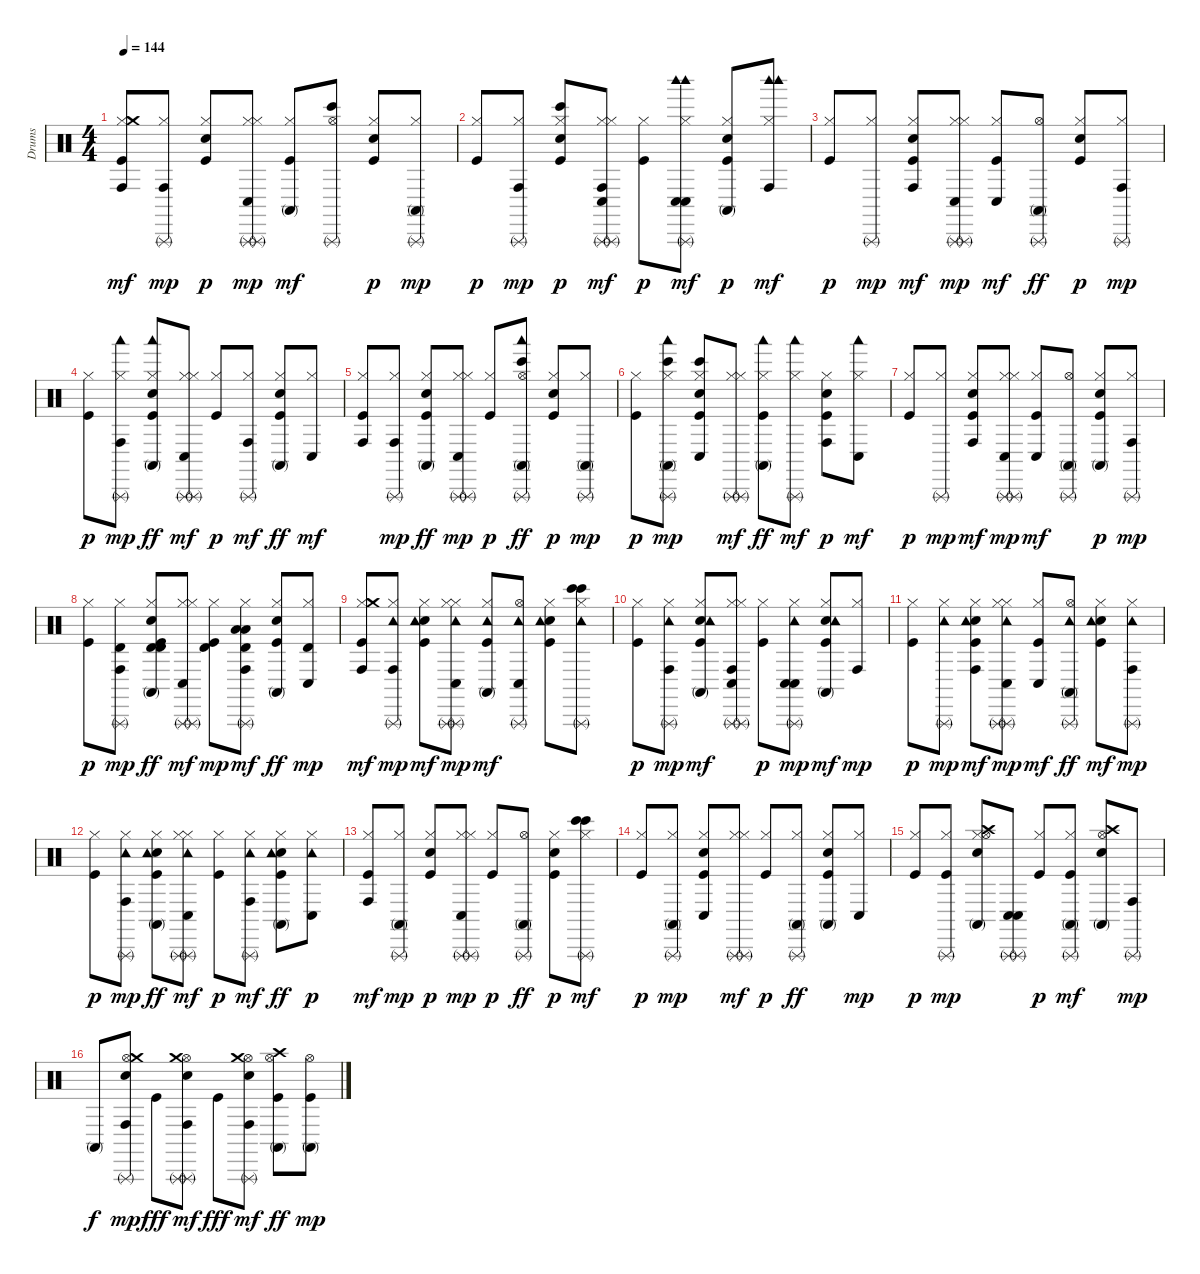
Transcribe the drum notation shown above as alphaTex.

\track ("Drums" "Drums") {instrument percussion}
\staff {score}
\articulation defaults
\ts (4 4)
\tempo 144
\clef neutral
\ks c
("Kick (hit)" "Hi-Hat (closed)" "Crash medium (hit)" "Conga high (hit)").8{dy mf} ("Hi-Hat (closed)" "Conga high (hit)" "Triangle (rnute)").8{dy mp} ("Kick (hit)" "Snare (hit) 2" "Hi-Hat (closed)").8{dy p} ("Hi-Hat (closed)" "Conga low (hit)" "Triangle (rnute)" "Hi-Hat (closed)" "Triangle (rnute)").8{dy mp} ("Kick (hit)" "Hi-Hat (closed)" "Conga high (mute)").8{dy mf} ("Hi-Hat (open)" "Bongo High (hit)" "Triangle (rnute)").8 ("Kick (hit)" "Snare (hit) 2" "Hi-Hat (closed)").8{dy p} ("Hi-Hat (closed)" "Conga high (mute)" "Triangle (rnute)").8{dy mp} |
("Kick (hit)" "Hi-Hat (closed)").8{dy p} ("Hi-Hat (closed)" "Conga high (hit)" "Triangle (rnute)").8{dy mp} ("Kick (hit)" "Snare (hit) 2" "Hi-Hat (closed)" "Bongo High (hit)").8{dy p} ("Hi-Hat (closed)" "Conga high (hit)" "Triangle (rnute)" "Hi-Hat (closed)" "Conga low (hit)" "Triangle (rnute)").8{dy mf} ("Kick (hit)" "Hi-Hat (closed)").8{dy p} ("Hi-Hat (closed)" "Conga low (hit)" "Woodblock high (hit)" "Triangle (rnute)" "Conga low (hit)" "Woodblock high (hit)").8{dy mf} ("Kick (hit)" "Snare (hit) 2" "Hi-Hat (closed)" "Conga high (mute)").8{dy p} ("Hi-Hat (closed)" "Conga high (hit)" "Woodblock high (hit)" "Woodblock high (hit)").8{dy mf} |
("Kick (hit)" "Hi-Hat (closed)").8{dy p} ("Hi-Hat (closed)" "Triangle (rnute)").8{dy mp} ("Kick (hit)" "Snare (hit) 2" "Hi-Hat (closed)" "Conga high (hit)").8{dy mf} ("Hi-Hat (closed)" "Conga low (hit)" "Triangle (rnute)" "Hi-Hat (closed)" "Triangle (rnute)").8{dy mp} ("Kick (hit)" "Hi-Hat (closed)" "Conga low (hit)").8{dy mf} ("Hi-Hat (open)" "Conga high (mute)" "Triangle (rnute)").8{dy ff} ("Kick (hit)" "Snare (hit) 2" "Hi-Hat (closed)").8{dy p} ("Hi-Hat (closed)" "Conga high (hit)" "Triangle (rnute)").8{dy mp} |
("Kick (hit)" "Hi-Hat (closed)").8{dy p} ("Hi-Hat (closed)" "Conga high (hit)" "Woodblock low (hit)" "Triangle (rnute)").8{dy mp} ("Kick (hit)" "Snare (hit) 2" "Hi-Hat (closed)" "Conga high (mute)" "Woodblock low (hit)").8{dy ff} ("Hi-Hat (closed)" "Conga low (hit)" "Triangle (rnute)" "Hi-Hat (closed)" "Triangle (rnute)").8{dy mf} ("Kick (hit)" "Hi-Hat (closed)").8{dy p} ("Hi-Hat (closed)" "Conga high (hit)" "Triangle (rnute)").8{dy mf} ("Kick (hit)" "Snare (hit) 2" "Hi-Hat (closed)" "Conga high (mute)").8{dy ff} ("Hi-Hat (closed)" "Conga low (hit)").8{dy mf} |
("Kick (hit)" "Hi-Hat (closed)" "Conga high (hit)").8 ("Hi-Hat (closed)" "Conga high (hit)" "Triangle (rnute)").8{dy mp} ("Kick (hit)" "Snare (hit) 2" "Hi-Hat (closed)" "Conga high (mute)").8{dy ff} ("Hi-Hat (closed)" "Conga low (hit)" "Triangle (rnute)" "Hi-Hat (closed)" "Triangle (rnute)").8{dy mp} ("Kick (hit)" "Hi-Hat (closed)").8{dy p} ("Hi-Hat (open)" "Bongo High (hit)" "Conga high (mute)" "Woodblock low (hit)" "Triangle (rnute)").8{dy ff} ("Kick (hit)" "Snare (hit) 2" "Hi-Hat (closed)").8{dy p} ("Hi-Hat (closed)" "Conga high (mute)" "Triangle (rnute)").8{dy mp} |
("Kick (hit)" "Hi-Hat (closed)").8{dy p} ("Hi-Hat (closed)" "Bongo High (hit)" "Conga high (mute)" "Woodblock low (hit)" "Triangle (rnute)").8{dy mp} ("Kick (hit)" "Snare (hit) 2" "Hi-Hat (closed)" "Bongo High (hit)" "Conga low (hit)").8 ("Hi-Hat (closed)" "Triangle (rnute)" "Hi-Hat (closed)" "Triangle (rnute)").8{dy mf} ("Kick (hit)" "Hi-Hat (closed)" "Conga high (mute)" "Woodblock low (hit)").8{dy ff} ("Hi-Hat (closed)" "Woodblock low (hit)" "Triangle (rnute)").8{dy mf} ("Kick (hit)" "Snare (hit) 2" "Hi-Hat (closed)" "Conga high (hit)").8{dy p} ("Hi-Hat (closed)" "Conga low (hit)" "Woodblock low (hit)").8{dy mf} |
("Kick (hit)" "Hi-Hat (closed)").8{dy p} ("Hi-Hat (closed)" "Triangle (rnute)").8{dy mp} ("Kick (hit)" "Snare (hit) 2" "Hi-Hat (closed)" "Conga high (hit)").8{dy mf} ("Hi-Hat (closed)" "Conga low (hit)" "Triangle (rnute)" "Hi-Hat (closed)" "Triangle (rnute)").8{dy mp} ("Kick (hit)" "Hi-Hat (closed)" "Conga low (hit)").8{dy mf} ("Hi-Hat (open)" "Conga high (mute)" "Triangle (rnute)").8 ("Kick (hit)" "Snare (hit) 2" "Hi-Hat (closed)" "Conga high (mute)").8{dy p} ("Hi-Hat (closed)" "Conga high (hit)" "Triangle (rnute)").8{dy mp} |
("Kick (hit)" "Hi-Hat (closed)").8{dy p} ("Hi-Hat (closed)" "Conga high (hit)" "Timbale high (hit)" "Triangle (rnute)").8{dy mp} ("Kick (hit)" "Snare (hit) 2" "Hi-Hat (closed)" "Conga high (mute)" "Timbale high (hit)" "Timbale high (hit)").8{dy ff} ("Hi-Hat (closed)" "Conga low (hit)" "Triangle (rnute)" "Hi-Hat (closed)" "Triangle (rnute)").8{dy mf} ("Kick (hit)" "Hi-Hat (closed)" "Timbale high (hit)").8{dy mp} ("Hi-Hat (closed)" "Low Tom (hit)" "Conga high (hit)" "Timbale high (hit)" "Triangle (rnute)" "Low Tom (hit)").8{dy mf} ("Kick (hit)" "Snare (hit) 2" "Hi-Hat (closed)" "Conga high (mute)").8{dy ff} ("Hi-Hat (closed)" "Conga low (hit)" "Timbale high (hit)").8{dy mp} |
("Kick (hit)" "Hi-Hat (closed)" "Crash medium (hit)" "Conga high (hit)").8{dy mf} ("Hi-Hat (closed)" "Tambourine (hit)" "Conga high (hit)" "Triangle (rnute)").8{dy mp} ("Kick (hit)" "Snare (hit) 2" "Hi-Hat (closed)" "Tambourine (hit)").8{dy mf} ("Hi-Hat (closed)" "Tambourine (hit)" "Conga low (hit)" "Triangle (rnute)" "Hi-Hat (closed)" "Triangle (rnute)").8{dy mp} ("Kick (hit)" "Hi-Hat (closed)" "Tambourine (hit)" "Conga high (mute)").8{dy mf} ("Hi-Hat (open)" "Tambourine (hit)" "Conga low (hit)" "Triangle (rnute)").8 ("Kick (hit)" "Snare (hit) 2" "Hi-Hat (closed)" "Tambourine (hit)").8 ("Hi-Hat (closed)" "Tambourine (hit)" "Bongo High (hit)" "Triangle (rnute)" "Bongo High (hit)").8 |
("Kick (hit)" "Hi-Hat (closed)").8{dy p} ("Hi-Hat (closed)" "Tambourine (hit)" "Conga high (hit)" "Triangle (rnute)").8{dy mp} ("Kick (hit)" "Snare (hit) 2" "Hi-Hat (closed)" "Tambourine (hit)" "Conga high (mute)").8{dy mf} ("Hi-Hat (closed)" "Conga high (hit)" "Triangle (rnute)" "Hi-Hat (closed)" "Conga low (hit)" "Triangle (rnute)").8 ("Kick (hit)" "Hi-Hat (closed)").8{dy p} ("Hi-Hat (closed)" "Tambourine (hit)" "Conga low (hit)" "Triangle (rnute)" "Conga low (hit)").8{dy mp} ("Kick (hit)" "Snare (hit) 2" "Hi-Hat (closed)" "Tambourine (hit)" "Conga high (mute)").8{dy mf} ("Hi-Hat (closed)" "Conga high (hit)").8{dy mp} |
("Kick (hit)" "Hi-Hat (closed)").8{dy p} ("Hi-Hat (closed)" "Tambourine (hit)" "Triangle (rnute)").8{dy mp} ("Kick (hit)" "Snare (hit) 2" "Hi-Hat (closed)" "Tambourine (hit)" "Conga high (hit)").8{dy mf} ("Hi-Hat (closed)" "Tambourine (hit)" "Conga low (hit)" "Triangle (rnute)" "Hi-Hat (closed)" "Triangle (rnute)").8{dy mp} ("Kick (hit)" "Hi-Hat (closed)" "Conga low (hit)").8{dy mf} ("Hi-Hat (open)" "Tambourine (hit)" "Conga high (mute)" "Triangle (rnute)").8{dy ff} ("Kick (hit)" "Snare (hit) 2" "Hi-Hat (closed)" "Tambourine (hit)").8{dy mf} ("Hi-Hat (closed)" "Tambourine (hit)" "Conga high (hit)" "Triangle (rnute)").8{dy mp} |
("Kick (hit)" "Hi-Hat (closed)").8{dy p} ("Hi-Hat (closed)" "Tambourine (hit)" "Conga high (hit)" "Triangle (rnute)").8{dy mp} ("Kick (hit)" "Snare (hit) 2" "Hi-Hat (closed)" "Tambourine (hit)" "Conga high (mute)").8{dy ff} ("Hi-Hat (closed)" "Tambourine (hit)" "Conga low (hit)" "Triangle (rnute)" "Hi-Hat (closed)" "Triangle (rnute)").8{dy mf} ("Kick (hit)" "Hi-Hat (closed)").8{dy p} ("Hi-Hat (closed)" "Tambourine (hit)" "Conga high (hit)" "Triangle (rnute)").8{dy mf} ("Kick (hit)" "Snare (hit) 2" "Hi-Hat (closed)" "Tambourine (hit)" "Conga high (mute)").8{dy ff} ("Hi-Hat (closed)" "Tambourine (hit)" "Conga low (hit)").8{dy p} |
("Kick (hit)" "Hi-Hat (closed)" "Conga high (hit)").8{dy mf} ("Hi-Hat (closed)" "Conga high (mute)" "Triangle (rnute)").8{dy mp} ("Kick (hit)" "Snare (hit) 2" "Hi-Hat (closed)").8{dy p} ("Hi-Hat (closed)" "Conga low (hit)" "Triangle (rnute)" "Hi-Hat (closed)" "Triangle (rnute)").8{dy mp} ("Kick (hit)" "Hi-Hat (closed)").8{dy p} ("Hi-Hat (open)" "Conga high (mute)" "Triangle (rnute)").8{dy ff} ("Kick (hit)" "Snare (hit) 2" "Hi-Hat (closed)").8{dy p} ("Hi-Hat (closed)" "Bongo High (hit)" "Triangle (rnute)" "Bongo High (hit)").8{dy mf} |
("Kick (hit)" "Hi-Hat (closed)").8{dy p} ("Hi-Hat (closed)" "Conga high (mute)" "Triangle (rnute)").8{dy mp} ("Kick (hit)" "Snare (hit) 2" "Hi-Hat (closed)" "Conga low (hit)").8 ("Hi-Hat (closed)" "Triangle (rnute)" "Hi-Hat (closed)" "Triangle (rnute)").8{dy mf} ("Kick (hit)" "Hi-Hat (closed)").8{dy p} ("Hi-Hat (closed)" "Conga high (mute)" "Triangle (rnute)").8{dy ff} ("Kick (hit)" "Snare (hit) 2" "Hi-Hat (closed)" "Conga high (mute)").8 ("Hi-Hat (closed)" "Conga low (hit)").8{dy mp} |
("Kick (hit)" "Hi-Hat (closed)").8{dy p} ("Kick (hit)" "Hi-Hat (closed)" "Triangle (rnute)").8{dy mp} ("Snare (hit) 2" "Hi-Hat (closed)" "Hi-Hat (open)" "Crash high (hit)" "Conga high (mute)").8 ("Conga low (hit)" "Triangle (rnute)" "Conga low (hit)" "Triangle (rnute)").8 ("Kick (hit)" "Hi-Hat (closed)").8{dy p} ("Kick (hit)" "Hi-Hat (closed)" "Conga high (mute)" "Triangle (rnute)").8{dy mf} ("Snare (hit) 2" "Hi-Hat (open)" "Crash high (hit)" "Conga high (mute)").8 ("Conga high (hit)" "Triangle (rnute)").8{dy mp} |
"Conga high (mute)".8{dy f} ("Snare (hit) 2" "Hi-Hat (open)" "Crash medium (hit)" "Conga high (hit)" "Triangle (rnute)").8{dy mp} "Kick (hit)".8{dy fff} ("Snare (hit) 2" "Hi-Hat (open)" "Crash medium (hit)" "Conga high (hit)" "Triangle (rnute)" "Triangle (rnute)").8{dy mf} "Kick (hit)".8{dy fff} ("Snare (hit) 2" "Hi-Hat (open)" "Crash medium (hit)" "Conga high (hit)" "Triangle (rnute)").8{dy mf} ("Kick (hit)" "Hi-Hat (open)" "Crash high (hit)" "Conga high (mute)").8{dy ff} ("Kick (hit)" "Hi-Hat (open)" "Conga high (mute)").8{dy mp}
